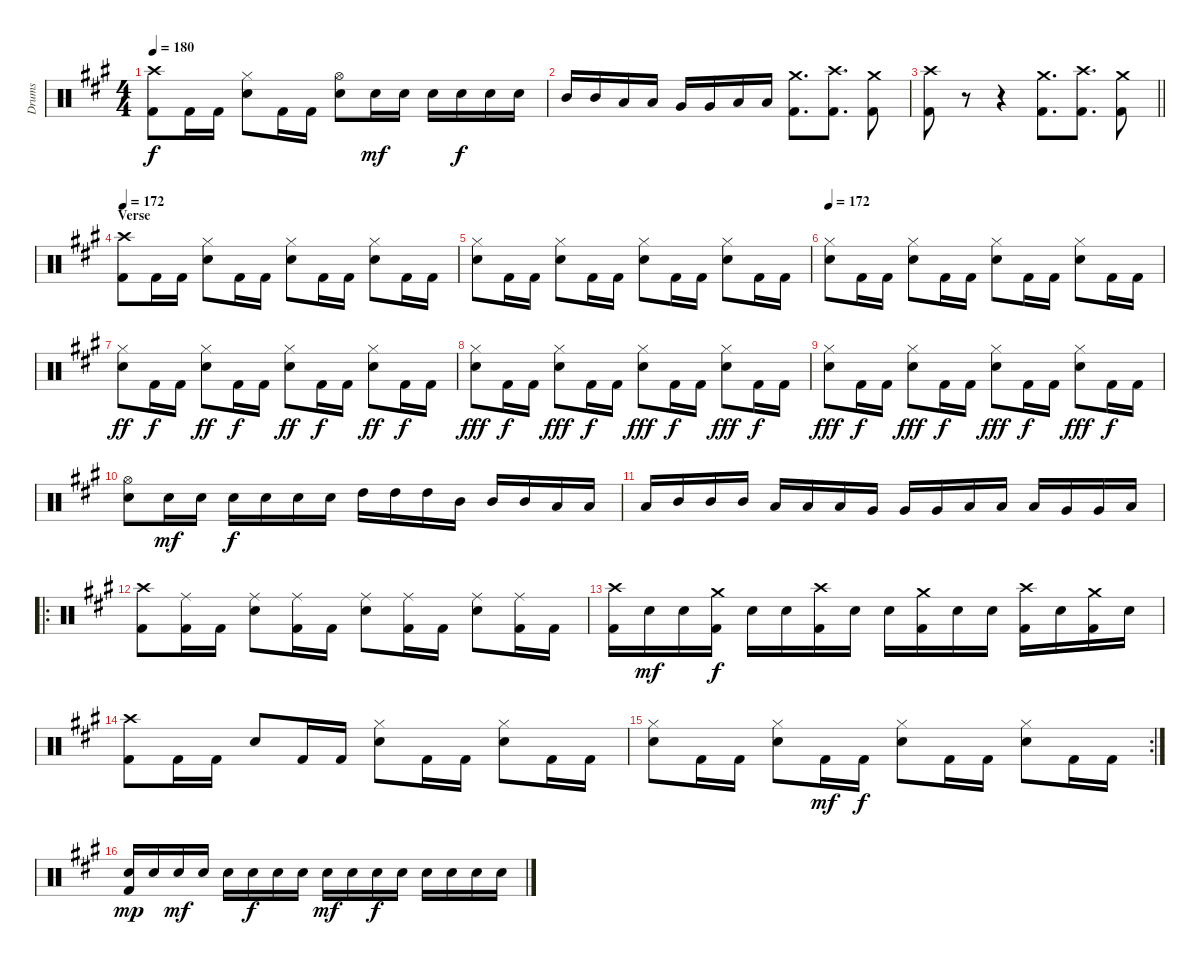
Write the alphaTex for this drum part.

\track ("Drums" "Drums") {instrument percussion}
\staff {score}
\articulation defaults
\ts (4 4)
\tempo 180
\clef neutral
\ks a
("Crash high (hit)" "Kick (hit) 2").8{dy f} "Kick (hit) 2".16 "Kick (hit) 2".16 ("Hi-Hat (closed)" "Snare (hit) 2").8 "Kick (hit) 2".16 "Kick (hit) 2".16 ("Hi-Hat (open)" "Snare (hit) 2").8 "Snare (hit) 2".16{dy mf} "Snare (hit) 2".16 "Snare (hit) 2".16 "Snare (hit) 2".16{dy f} "Snare (hit) 2".16 "Snare (hit) 2".16 |
"Mid Tom (hit)".16 "Mid Tom (hit)".16 "Low Tom (hit)".16 "Low Tom (hit)".16 "Very Low Tom (hit)".16 "Very Low Tom (hit)".16 "Low Tom (hit)".16 "Low Tom (hit)".16 ("Crash medium (hit)" "Kick (hit) 2").8{d} ("Crash high (hit)" "Kick (hit) 2").8{d} ("Crash medium (hit)" "Kick (hit) 2").8 |
\barLineRight lightlight
("Crash high (hit)" "Kick (hit) 2").8 r.8 r.4 ("Crash medium (hit)" "Kick (hit) 2").8{d} ("Crash high (hit)" "Kick (hit) 2").8{d} ("Crash medium (hit)" "Kick (hit) 2").8 |
\section ("" "Verse")
\tempo 172
("Crash high (hit)" "Kick (hit) 2").8 "Kick (hit) 2".16 "Kick (hit) 2".16 ("Hi-Hat (closed)" "Snare (hit) 2").8 "Kick (hit) 2".16 "Kick (hit) 2".16 ("Hi-Hat (closed)" "Snare (hit) 2").8 "Kick (hit) 2".16 "Kick (hit) 2".16 ("Hi-Hat (closed)" "Snare (hit) 2").8 "Kick (hit) 2".16 "Kick (hit) 2".16 |
("Hi-Hat (closed)" "Snare (hit) 2").8 "Kick (hit) 2".16 "Kick (hit) 2".16 ("Hi-Hat (closed)" "Snare (hit) 2").8 "Kick (hit) 2".16 "Kick (hit) 2".16 ("Hi-Hat (closed)" "Snare (hit) 2").8 "Kick (hit) 2".16 "Kick (hit) 2".16 ("Hi-Hat (closed)" "Snare (hit) 2").8 "Kick (hit) 2".16 "Kick (hit) 2".16 |
\tempo 172
("Hi-Hat (closed)" "Snare (hit) 2").8 "Kick (hit) 2".16 "Kick (hit) 2".16 ("Hi-Hat (closed)" "Snare (hit) 2").8 "Kick (hit) 2".16 "Kick (hit) 2".16 ("Hi-Hat (closed)" "Snare (hit) 2").8 "Kick (hit) 2".16 "Kick (hit) 2".16 ("Hi-Hat (closed)" "Snare (hit) 2").8 "Kick (hit) 2".16 "Kick (hit) 2".16 |
("Hi-Hat (closed)" "Snare (hit) 2").8{dy ff} "Kick (hit) 2".16{dy f} "Kick (hit) 2".16 ("Hi-Hat (closed)" "Snare (hit) 2").8{dy ff} "Kick (hit) 2".16{dy f} "Kick (hit) 2".16 ("Hi-Hat (closed)" "Snare (hit) 2").8{dy ff} "Kick (hit) 2".16{dy f} "Kick (hit) 2".16 ("Hi-Hat (closed)" "Snare (hit) 2").8{dy ff} "Kick (hit) 2".16{dy f} "Kick (hit) 2".16 |
("Hi-Hat (closed)" "Snare (hit) 2").8{dy fff} "Kick (hit) 2".16{dy f} "Kick (hit) 2".16 ("Hi-Hat (closed)" "Snare (hit) 2").8{dy fff} "Kick (hit) 2".16{dy f} "Kick (hit) 2".16 ("Hi-Hat (closed)" "Snare (hit) 2").8{dy fff} "Kick (hit) 2".16{dy f} "Kick (hit) 2".16 ("Hi-Hat (closed)" "Snare (hit) 2").8{dy fff} "Kick (hit) 2".16{dy f} "Kick (hit) 2".16 |
("Hi-Hat (closed)" "Snare (hit) 2").8{dy fff} "Kick (hit) 2".16{dy f} "Kick (hit) 2".16 ("Hi-Hat (closed)" "Snare (hit) 2").8{dy fff} "Kick (hit) 2".16{dy f} "Kick (hit) 2".16 ("Hi-Hat (closed)" "Snare (hit) 2").8{dy fff} "Kick (hit) 2".16{dy f} "Kick (hit) 2".16 ("Hi-Hat (closed)" "Snare (hit) 2").8{dy fff} "Kick (hit) 2".16{dy f} "Kick (hit) 2".16 |
("Hi-Hat (open)" "Snare (hit) 2").8 "Snare (hit) 2".16{dy mf} "Snare (hit) 2".16 "Snare (hit) 2".16{dy f} "Snare (hit) 2".16 "Snare (hit) 2".16 "Snare (hit) 2".16 "High Tom (hit)".16 "High Tom (hit)".16 "High Tom (hit)".16 "Mid Tom (hit)".16 "Mid Tom (hit)".16 "Mid Tom (hit)".16 "Low Tom (hit)".16 "Low Tom (hit)".16 |
"Low Tom (hit)".16 "Mid Tom (hit)".16 "Mid Tom (hit)".16 "Mid Tom (hit)".16 "Low Tom (hit)".16 "Low Tom (hit)".16 "Low Tom (hit)".16 "Very Low Tom (hit)".16 "Very Low Tom (hit)".16 "Very Low Tom (hit)".16 "Low Floor Tom (hit)".16 "Low Floor Tom (hit)".16 "Low Floor Tom (hit)".16 "Very Low Tom (hit)".16 "Very Low Tom (hit)".16 "Low Floor Tom (hit)".16 |
\ro
("Crash high (hit)" "Kick (hit) 2").8 ("Ride (middle)" "Kick (hit) 2").16 "Kick (hit) 2".16 ("Ride (middle)" "Snare (hit) 2").8 ("Ride (middle)" "Kick (hit) 2").16 "Kick (hit) 2".16 ("Ride (middle)" "Snare (hit) 2").8 ("Ride (middle)" "Kick (hit) 2").16 "Kick (hit) 2".16 ("Ride (middle)" "Snare (hit) 2").8 ("Ride (middle)" "Kick (hit) 2").16 "Kick (hit) 2".16 |
("Crash high (hit)" "Kick (hit) 2").16 "Snare (hit) 2".16{dy mf} "Snare (hit) 2".16 ("Crash medium (hit)" "Kick (hit) 2").16{dy f} "Snare (hit) 2".16 "Snare (hit) 2".16 ("Crash high (hit)" "Kick (hit) 2").16 "Snare (hit) 2".16 "Snare (hit) 2".16 ("Crash medium (hit)" "Kick (hit) 2").16 "Snare (hit) 2".16 "Snare (hit) 2".16 ("Crash high (hit)" "Kick (hit) 2").16 "Snare (hit) 2".16 ("Crash medium (hit)" "Kick (hit) 2").16 "Snare (hit) 2".16 |
("Crash high (hit)" "Kick (hit) 2").8 "Kick (hit) 2".16 "Kick (hit) 2".16 "Snare (hit) 2".8 "Kick (hit) 2".16 "Kick (hit) 2".16 ("Hi-Hat (closed)" "Snare (hit) 2").8 "Kick (hit) 2".16 "Kick (hit) 2".16 ("Hi-Hat (closed)" "Snare (hit) 2").8 "Kick (hit) 2".16 "Kick (hit) 2".16 |
\rc 2
("Hi-Hat (closed)" "Snare (hit) 2").8 "Kick (hit) 2".16 "Kick (hit) 2".16 ("Hi-Hat (closed)" "Snare (hit) 2").8 "Kick (hit) 2".16{dy mf} "Kick (hit) 2".16{dy f} ("Hi-Hat (closed)" "Snare (hit) 2").8 "Kick (hit) 2".16 "Kick (hit) 2".16 ("Hi-Hat (closed)" "Snare (hit) 2").8 "Kick (hit) 2".16 "Kick (hit) 2".16 |
("Snare (hit) 2" "Kick (hit) 2").16{dy mp} "Snare (hit) 2".16 "Snare (hit) 2".16{dy mf} "Snare (hit) 2".16 "Snare (hit) 2".16 "Snare (hit) 2".16{dy f} "Snare (hit) 2".16 "Snare (hit) 2".16 "Snare (hit) 2".16{dy mf} "Snare (hit) 2".16 "Snare (hit) 2".16{dy f} "Snare (hit) 2".16 "Snare (hit) 2".16 "Snare (hit) 2".16 "Snare (hit) 2".16 "Snare (hit) 2".16
